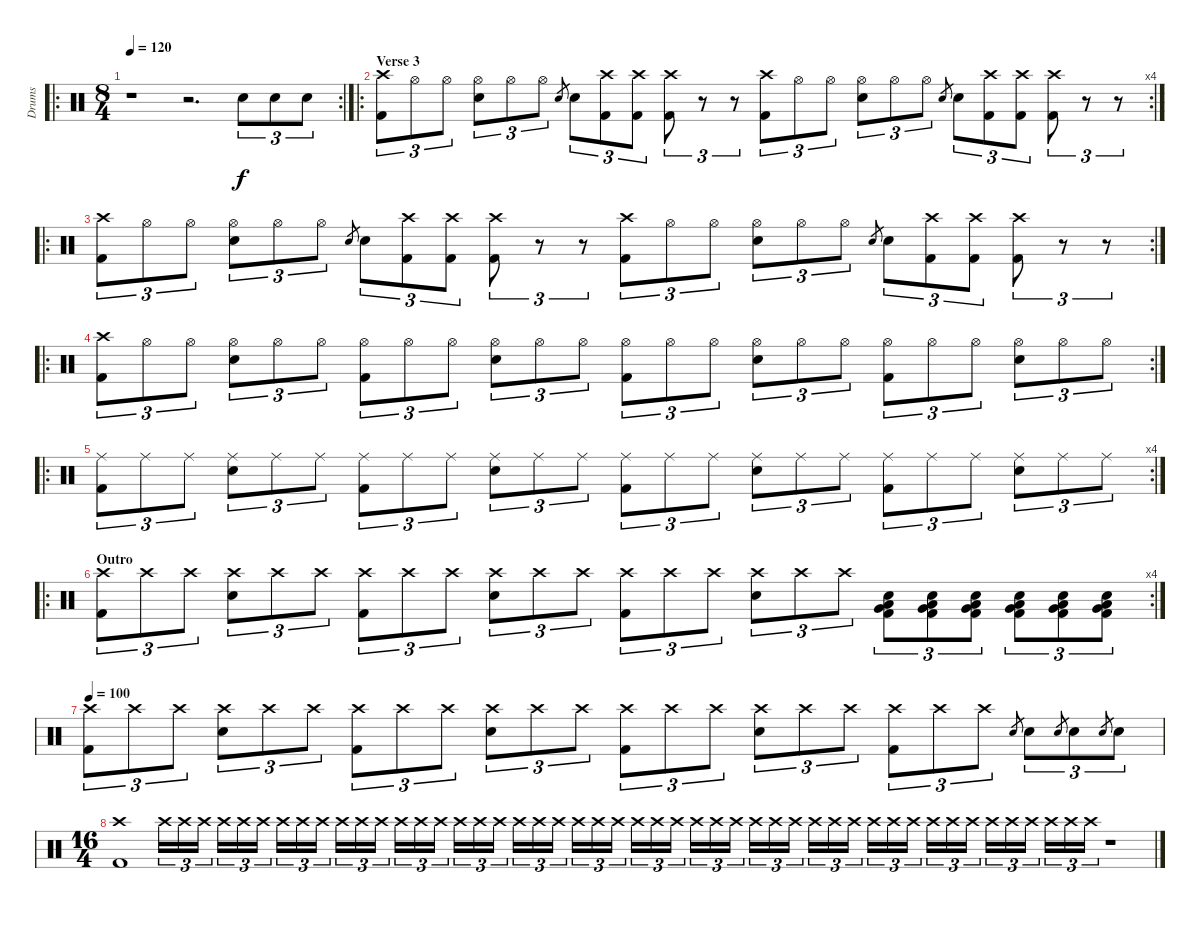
\track ("Drums" "Drums") {instrument percussion}
\staff {score}
\articulation defaults
\ro
\rc 2
\ts (8 4)
\tempo 120
\clef neutral
\ks c
r.1{dy f} r.2{d} "Electric Snare (hit)".8{tu (3 2)} "Electric Snare (hit)".8{tu (3 2)} "Electric Snare (hit)".8{tu (3 2)} |
\ro
\rc 4
\section ("" "Verse 3")
("Crash high (hit)" "Kick (hit) 2").8{tu (3 2)} "Hi-Hat (open)".8{tu (3 2)} "Hi-Hat (open)".8{tu (3 2)} ("Hi-Hat (open)" "Electric Snare (hit)").8{tu (3 2)} "Hi-Hat (open)".8{tu (3 2)} "Hi-Hat (open)".8{tu (3 2)} "Electric Snare (hit)".8{gr} "Electric Snare (hit)".8{tu (3 2)} ("Crash high (hit)" "Kick (hit) 2").8{tu (3 2)} ("Crash high (hit)" "Kick (hit) 2").8{tu (3 2)} ("Crash high (hit)" "Kick (hit) 2").8{tu (3 2)} r.8{tu (3 2)} r.8{tu (3 2)} ("Crash high (hit)" "Kick (hit) 2").8{tu (3 2)} "Hi-Hat (open)".8{tu (3 2)} "Hi-Hat (open)".8{tu (3 2)} ("Hi-Hat (open)" "Electric Snare (hit)").8{tu (3 2)} "Hi-Hat (open)".8{tu (3 2)} "Hi-Hat (open)".8{tu (3 2)} "Electric Snare (hit)".8{gr} "Electric Snare (hit)".8{tu (3 2)} ("Crash high (hit)" "Kick (hit) 2").8{tu (3 2)} ("Crash high (hit)" "Kick (hit) 2").8{tu (3 2)} ("Crash high (hit)" "Kick (hit) 2").8{tu (3 2)} r.8{tu (3 2)} r.8{tu (3 2)} |
\ro
\rc 2
("Crash high (hit)" "Kick (hit) 2").8{tu (3 2)} "Hi-Hat (open)".8{tu (3 2)} "Hi-Hat (open)".8{tu (3 2)} ("Hi-Hat (open)" "Electric Snare (hit)").8{tu (3 2)} "Hi-Hat (open)".8{tu (3 2)} "Hi-Hat (open)".8{tu (3 2)} "Electric Snare (hit)".8{gr} "Electric Snare (hit)".8{tu (3 2)} ("Crash high (hit)" "Kick (hit) 2").8{tu (3 2)} ("Crash high (hit)" "Kick (hit) 2").8{tu (3 2)} ("Crash high (hit)" "Kick (hit) 2").8{tu (3 2)} r.8{tu (3 2)} r.8{tu (3 2)} ("Crash high (hit)" "Kick (hit) 2").8{tu (3 2)} "Hi-Hat (open)".8{tu (3 2)} "Hi-Hat (open)".8{tu (3 2)} ("Hi-Hat (open)" "Electric Snare (hit)").8{tu (3 2)} "Hi-Hat (open)".8{tu (3 2)} "Hi-Hat (open)".8{tu (3 2)} "Electric Snare (hit)".8{gr} "Electric Snare (hit)".8{tu (3 2)} ("Crash high (hit)" "Kick (hit) 2").8{tu (3 2)} ("Crash high (hit)" "Kick (hit) 2").8{tu (3 2)} ("Crash high (hit)" "Kick (hit) 2").8{tu (3 2)} r.8{tu (3 2)} r.8{tu (3 2)} |
\ro
\rc 2
("Crash high (hit)" "Kick (hit) 2").8{tu (3 2)} "Hi-Hat (open)".8{tu (3 2)} "Hi-Hat (open)".8{tu (3 2)} ("Hi-Hat (open)" "Electric Snare (hit)").8{tu (3 2)} "Hi-Hat (open)".8{tu (3 2)} "Hi-Hat (open)".8{tu (3 2)} ("Hi-Hat (open)" "Kick (hit) 2").8{tu (3 2)} "Hi-Hat (open)".8{tu (3 2)} "Hi-Hat (open)".8{tu (3 2)} ("Hi-Hat (open)" "Electric Snare (hit)").8{tu (3 2)} "Hi-Hat (open)".8{tu (3 2)} "Hi-Hat (open)".8{tu (3 2)} ("Hi-Hat (open)" "Kick (hit) 2").8{tu (3 2)} "Hi-Hat (open)".8{tu (3 2)} "Hi-Hat (open)".8{tu (3 2)} ("Hi-Hat (open)" "Electric Snare (hit)").8{tu (3 2)} "Hi-Hat (open)".8{tu (3 2)} "Hi-Hat (open)".8{tu (3 2)} ("Hi-Hat (open)" "Kick (hit) 2").8{tu (3 2)} "Hi-Hat (open)".8{tu (3 2)} "Hi-Hat (open)".8{tu (3 2)} ("Hi-Hat (open)" "Electric Snare (hit)").8{tu (3 2)} "Hi-Hat (open)".8{tu (3 2)} "Hi-Hat (open)".8{tu (3 2)} |
\ro
\rc 4
("Ride (middle)" "Kick (hit) 2").8{tu (3 2)} "Ride (middle)".8{tu (3 2)} "Ride (middle)".8{tu (3 2)} ("Ride (middle)" "Electric Snare (hit)").8{tu (3 2)} "Ride (middle)".8{tu (3 2)} "Ride (middle)".8{tu (3 2)} ("Ride (middle)" "Kick (hit) 2").8{tu (3 2)} "Ride (middle)".8{tu (3 2)} "Ride (middle)".8{tu (3 2)} ("Ride (middle)" "Electric Snare (hit)").8{tu (3 2)} "Ride (middle)".8{tu (3 2)} "Ride (middle)".8{tu (3 2)} ("Ride (middle)" "Kick (hit) 2").8{tu (3 2)} "Ride (middle)".8{tu (3 2)} "Ride (middle)".8{tu (3 2)} ("Ride (middle)" "Electric Snare (hit)").8{tu (3 2)} "Ride (middle)".8{tu (3 2)} "Ride (middle)".8{tu (3 2)} ("Ride (middle)" "Kick (hit) 2").8{tu (3 2)} "Ride (middle)".8{tu (3 2)} "Ride (middle)".8{tu (3 2)} ("Ride (middle)" "Electric Snare (hit)").8{tu (3 2)} "Ride (middle)".8{tu (3 2)} "Ride (middle)".8{tu (3 2)} |
\ro
\rc 4
\section ("" "Outro")
("Crash high (hit)" "Kick (hit) 2").8{tu (3 2)} "Crash high (hit)".8{tu (3 2)} "Crash high (hit)".8{tu (3 2)} ("Crash high (hit)" "Electric Snare (hit)").8{tu (3 2)} "Crash high (hit)".8{tu (3 2)} "Crash high (hit)".8{tu (3 2)} ("Crash high (hit)" "Kick (hit) 2").8{tu (3 2)} "Crash high (hit)".8{tu (3 2)} "Crash high (hit)".8{tu (3 2)} ("Crash high (hit)" "Electric Snare (hit)").8{tu (3 2)} "Crash high (hit)".8{tu (3 2)} "Crash high (hit)".8{tu (3 2)} ("Crash high (hit)" "Kick (hit) 2").8{tu (3 2)} "Crash high (hit)".8{tu (3 2)} "Crash high (hit)".8{tu (3 2)} ("Crash high (hit)" "Electric Snare (hit)").8{tu (3 2)} "Crash high (hit)".8{tu (3 2)} "Crash high (hit)".8{tu (3 2)} ("Kick (hit) 2" "Very Low Tom (hit)" "Low Floor Tom (hit)" "Electric Snare (hit)").8{tu (3 2)} ("Kick (hit) 2" "Very Low Tom (hit)" "Low Floor Tom (hit)" "Electric Snare (hit)").8{tu (3 2)} ("Kick (hit) 2" "Very Low Tom (hit)" "Low Floor Tom (hit)" "Electric Snare (hit)").8{tu (3 2)} ("Kick (hit) 2" "Very Low Tom (hit)" "Low Floor Tom (hit)" "Electric Snare (hit)").8{tu (3 2)} ("Kick (hit) 2" "Very Low Tom (hit)" "Low Floor Tom (hit)" "Electric Snare (hit)").8{tu (3 2)} ("Kick (hit) 2" "Very Low Tom (hit)" "Low Floor Tom (hit)" "Electric Snare (hit)").8{tu (3 2)} |
\tempo 100
("Crash high (hit)" "Kick (hit) 2").8{tu (3 2)} "Crash high (hit)".8{tu (3 2)} "Crash high (hit)".8{tu (3 2)} ("Crash high (hit)" "Electric Snare (hit)").8{tu (3 2)} "Crash high (hit)".8{tu (3 2)} "Crash high (hit)".8{tu (3 2)} ("Crash high (hit)" "Kick (hit) 2").8{tu (3 2)} "Crash high (hit)".8{tu (3 2)} "Crash high (hit)".8{tu (3 2)} ("Crash high (hit)" "Electric Snare (hit)").8{tu (3 2)} "Crash high (hit)".8{tu (3 2)} "Crash high (hit)".8{tu (3 2)} ("Crash high (hit)" "Kick (hit) 2").8{tu (3 2)} "Crash high (hit)".8{tu (3 2)} "Crash high (hit)".8{tu (3 2)} ("Crash high (hit)" "Electric Snare (hit)").8{tu (3 2)} "Crash high (hit)".8{tu (3 2)} "Crash high (hit)".8{tu (3 2)} ("Crash high (hit)" "Kick (hit) 2").8{tu (3 2)} "Crash high (hit)".8{tu (3 2)} "Crash high (hit)".8{tu (3 2)} "Electric Snare (hit)".8{gr} "Electric Snare (hit)".8{tu (3 2)} "Electric Snare (hit)".8{gr} "Electric Snare (hit)".8{tu (3 2)} "Electric Snare (hit)".8{gr} "Electric Snare (hit)".8{tu (3 2)} |
\ts (16 4)
("Crash high (hit)" "Kick (hit) 2").1 "Crash high (hit)".16{tu (3 2)} "Crash high (hit)".16{tu (3 2)} "Crash high (hit)".16{tu (3 2)} "Crash high (hit)".16{tu (3 2)} "Crash high (hit)".16{tu (3 2)} "Crash high (hit)".16{tu (3 2)} "Crash high (hit)".16{tu (3 2)} "Crash high (hit)".16{tu (3 2)} "Crash high (hit)".16{tu (3 2)} "Crash high (hit)".16{tu (3 2)} "Crash high (hit)".16{tu (3 2)} "Crash high (hit)".16{tu (3 2)} "Crash high (hit)".16{tu (3 2)} "Crash high (hit)".16{tu (3 2)} "Crash high (hit)".16{tu (3 2)} "Crash high (hit)".16{tu (3 2)} "Crash high (hit)".16{tu (3 2)} "Crash high (hit)".16{tu (3 2)} "Crash high (hit)".16{tu (3 2)} "Crash high (hit)".16{tu (3 2)} "Crash high (hit)".16{tu (3 2)} "Crash high (hit)".16{tu (3 2)} "Crash high (hit)".16{tu (3 2)} "Crash high (hit)".16{tu (3 2)} "Crash high (hit)".16{tu (3 2)} "Crash high (hit)".16{tu (3 2)} "Crash high (hit)".16{tu (3 2)} "Crash high (hit)".16{tu (3 2)} "Crash high (hit)".16{tu (3 2)} "Crash high (hit)".16{tu (3 2)} "Crash high (hit)".16{tu (3 2)} "Crash high (hit)".16{tu (3 2)} "Crash high (hit)".16{tu (3 2)} "Crash high (hit)".16{tu (3 2)} "Crash high (hit)".16{tu (3 2)} "Crash high (hit)".16{tu (3 2)} "Crash high (hit)".16{tu (3 2)} "Crash high (hit)".16{tu (3 2)} "Crash high (hit)".16{tu (3 2)} "Crash high (hit)".16{tu (3 2)} "Crash high (hit)".16{tu (3 2)} "Crash high (hit)".16{tu (3 2)} "Crash high (hit)".16{tu (3 2)} "Crash high (hit)".16{tu (3 2)} "Crash high (hit)".16{tu (3 2)} "Crash high (hit)".16{tu (3 2)} "Crash high (hit)".16{tu (3 2)} "Crash high (hit)".16{tu (3 2)} r.1
